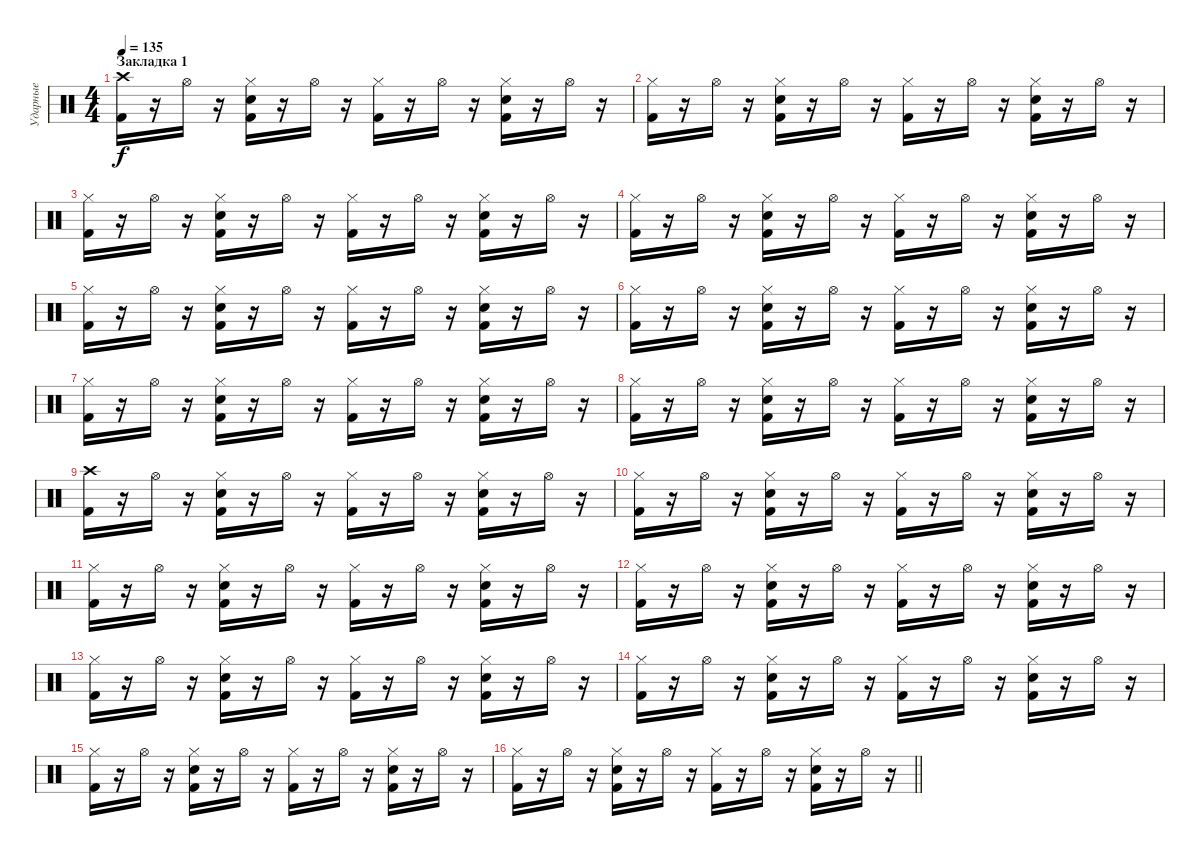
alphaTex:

\track ("Ударные" "Ударные") {instrument percussion}
\staff {score}
\articulation defaults
\ts (4 4)
\section ("" "Закладка 1")
\tempo 135
\clef neutral
\ks c
("Crash high (hit)" "Kick (hit) 2").16{dy f} r.16 "Hi-Hat (open)".16 r.16 ("Hi-Hat (closed)" "Electric Snare (hit)" "Kick (hit) 2").16 r.16 "Hi-Hat (open)".16 r.16 ("Hi-Hat (closed)" "Kick (hit) 2").16 r.16 "Hi-Hat (open)".16 r.16 ("Hi-Hat (closed)" "Electric Snare (hit)" "Kick (hit) 2").16 r.16 "Hi-Hat (open)".16 r.16 |
("Hi-Hat (closed)" "Kick (hit) 2").16 r.16 "Hi-Hat (open)".16 r.16 ("Hi-Hat (closed)" "Electric Snare (hit)" "Kick (hit) 2").16 r.16 "Hi-Hat (open)".16 r.16 ("Hi-Hat (closed)" "Kick (hit) 2").16 r.16 "Hi-Hat (open)".16 r.16 ("Hi-Hat (closed)" "Electric Snare (hit)" "Kick (hit) 2").16 r.16 "Hi-Hat (open)".16 r.16 |
("Hi-Hat (closed)" "Kick (hit) 2").16 r.16 "Hi-Hat (open)".16 r.16 ("Hi-Hat (closed)" "Electric Snare (hit)" "Kick (hit) 2").16 r.16 "Hi-Hat (open)".16 r.16 ("Hi-Hat (closed)" "Kick (hit) 2").16 r.16 "Hi-Hat (open)".16 r.16 ("Hi-Hat (closed)" "Electric Snare (hit)" "Kick (hit) 2").16 r.16 "Hi-Hat (open)".16 r.16 |
("Hi-Hat (closed)" "Kick (hit) 2").16 r.16 "Hi-Hat (open)".16 r.16 ("Hi-Hat (closed)" "Electric Snare (hit)" "Kick (hit) 2").16 r.16 "Hi-Hat (open)".16 r.16 ("Hi-Hat (closed)" "Kick (hit) 2").16 r.16 "Hi-Hat (open)".16 r.16 ("Hi-Hat (closed)" "Electric Snare (hit)" "Kick (hit) 2").16 r.16 "Hi-Hat (open)".16 r.16 |
("Hi-Hat (closed)" "Kick (hit) 2").16 r.16 "Hi-Hat (open)".16 r.16 ("Hi-Hat (closed)" "Electric Snare (hit)" "Kick (hit) 2").16 r.16 "Hi-Hat (open)".16 r.16 ("Hi-Hat (closed)" "Kick (hit) 2").16 r.16 "Hi-Hat (open)".16 r.16 ("Hi-Hat (closed)" "Electric Snare (hit)" "Kick (hit) 2").16 r.16 "Hi-Hat (open)".16 r.16 |
("Hi-Hat (closed)" "Kick (hit) 2").16 r.16 "Hi-Hat (open)".16 r.16 ("Hi-Hat (closed)" "Electric Snare (hit)" "Kick (hit) 2").16 r.16 "Hi-Hat (open)".16 r.16 ("Hi-Hat (closed)" "Kick (hit) 2").16 r.16 "Hi-Hat (open)".16 r.16 ("Hi-Hat (closed)" "Electric Snare (hit)" "Kick (hit) 2").16 r.16 "Hi-Hat (open)".16 r.16 |
("Hi-Hat (closed)" "Kick (hit) 2").16 r.16 "Hi-Hat (open)".16 r.16 ("Hi-Hat (closed)" "Electric Snare (hit)" "Kick (hit) 2").16 r.16 "Hi-Hat (open)".16 r.16 ("Hi-Hat (closed)" "Kick (hit) 2").16 r.16 "Hi-Hat (open)".16 r.16 ("Hi-Hat (closed)" "Electric Snare (hit)" "Kick (hit) 2").16 r.16 "Hi-Hat (open)".16 r.16 |
("Hi-Hat (closed)" "Kick (hit) 2").16 r.16 "Hi-Hat (open)".16 r.16 ("Hi-Hat (closed)" "Electric Snare (hit)" "Kick (hit) 2").16 r.16 "Hi-Hat (open)".16 r.16 ("Hi-Hat (closed)" "Kick (hit) 2").16 r.16 "Hi-Hat (open)".16 r.16 ("Hi-Hat (closed)" "Electric Snare (hit)" "Kick (hit) 2").16 r.16 "Hi-Hat (open)".16 r.16 |
("Crash high (hit)" "Kick (hit) 2").16 r.16 "Hi-Hat (open)".16 r.16 ("Hi-Hat (closed)" "Electric Snare (hit)" "Kick (hit) 2").16 r.16 "Hi-Hat (open)".16 r.16 ("Hi-Hat (closed)" "Kick (hit) 2").16 r.16 "Hi-Hat (open)".16 r.16 ("Hi-Hat (closed)" "Electric Snare (hit)" "Kick (hit) 2").16 r.16 "Hi-Hat (open)".16 r.16 |
("Hi-Hat (closed)" "Kick (hit) 2").16 r.16 "Hi-Hat (open)".16 r.16 ("Hi-Hat (closed)" "Electric Snare (hit)" "Kick (hit) 2").16 r.16 "Hi-Hat (open)".16 r.16 ("Hi-Hat (closed)" "Kick (hit) 2").16 r.16 "Hi-Hat (open)".16 r.16 ("Hi-Hat (closed)" "Electric Snare (hit)" "Kick (hit) 2").16 r.16 "Hi-Hat (open)".16 r.16 |
("Hi-Hat (closed)" "Kick (hit) 2").16 r.16 "Hi-Hat (open)".16 r.16 ("Hi-Hat (closed)" "Electric Snare (hit)" "Kick (hit) 2").16 r.16 "Hi-Hat (open)".16 r.16 ("Hi-Hat (closed)" "Kick (hit) 2").16 r.16 "Hi-Hat (open)".16 r.16 ("Hi-Hat (closed)" "Electric Snare (hit)" "Kick (hit) 2").16 r.16 "Hi-Hat (open)".16 r.16 |
("Hi-Hat (closed)" "Kick (hit) 2").16 r.16 "Hi-Hat (open)".16 r.16 ("Hi-Hat (closed)" "Electric Snare (hit)" "Kick (hit) 2").16 r.16 "Hi-Hat (open)".16 r.16 ("Hi-Hat (closed)" "Kick (hit) 2").16 r.16 "Hi-Hat (open)".16 r.16 ("Hi-Hat (closed)" "Electric Snare (hit)" "Kick (hit) 2").16 r.16 "Hi-Hat (open)".16 r.16 |
("Hi-Hat (closed)" "Kick (hit) 2").16 r.16 "Hi-Hat (open)".16 r.16 ("Hi-Hat (closed)" "Electric Snare (hit)" "Kick (hit) 2").16 r.16 "Hi-Hat (open)".16 r.16 ("Hi-Hat (closed)" "Kick (hit) 2").16 r.16 "Hi-Hat (open)".16 r.16 ("Hi-Hat (closed)" "Electric Snare (hit)" "Kick (hit) 2").16 r.16 "Hi-Hat (open)".16 r.16 |
("Hi-Hat (closed)" "Kick (hit) 2").16 r.16 "Hi-Hat (open)".16 r.16 ("Hi-Hat (closed)" "Electric Snare (hit)" "Kick (hit) 2").16 r.16 "Hi-Hat (open)".16 r.16 ("Hi-Hat (closed)" "Kick (hit) 2").16 r.16 "Hi-Hat (open)".16 r.16 ("Hi-Hat (closed)" "Electric Snare (hit)" "Kick (hit) 2").16 r.16 "Hi-Hat (open)".16 r.16 |
("Hi-Hat (closed)" "Kick (hit) 2").16 r.16 "Hi-Hat (open)".16 r.16 ("Hi-Hat (closed)" "Electric Snare (hit)" "Kick (hit) 2").16 r.16 "Hi-Hat (open)".16 r.16 ("Hi-Hat (closed)" "Kick (hit) 2").16 r.16 "Hi-Hat (open)".16 r.16 ("Hi-Hat (closed)" "Electric Snare (hit)" "Kick (hit) 2").16 r.16 "Hi-Hat (open)".16 r.16 |
\barLineRight lightlight
("Hi-Hat (closed)" "Kick (hit) 2").16 r.16 "Hi-Hat (open)".16 r.16 ("Hi-Hat (closed)" "Electric Snare (hit)" "Kick (hit) 2").16 r.16 "Hi-Hat (open)".16 r.16 ("Hi-Hat (closed)" "Kick (hit) 2").16 r.16 "Hi-Hat (open)".16 r.16 ("Hi-Hat (closed)" "Electric Snare (hit)" "Kick (hit) 2").16 r.16 "Hi-Hat (open)".16 r.16
